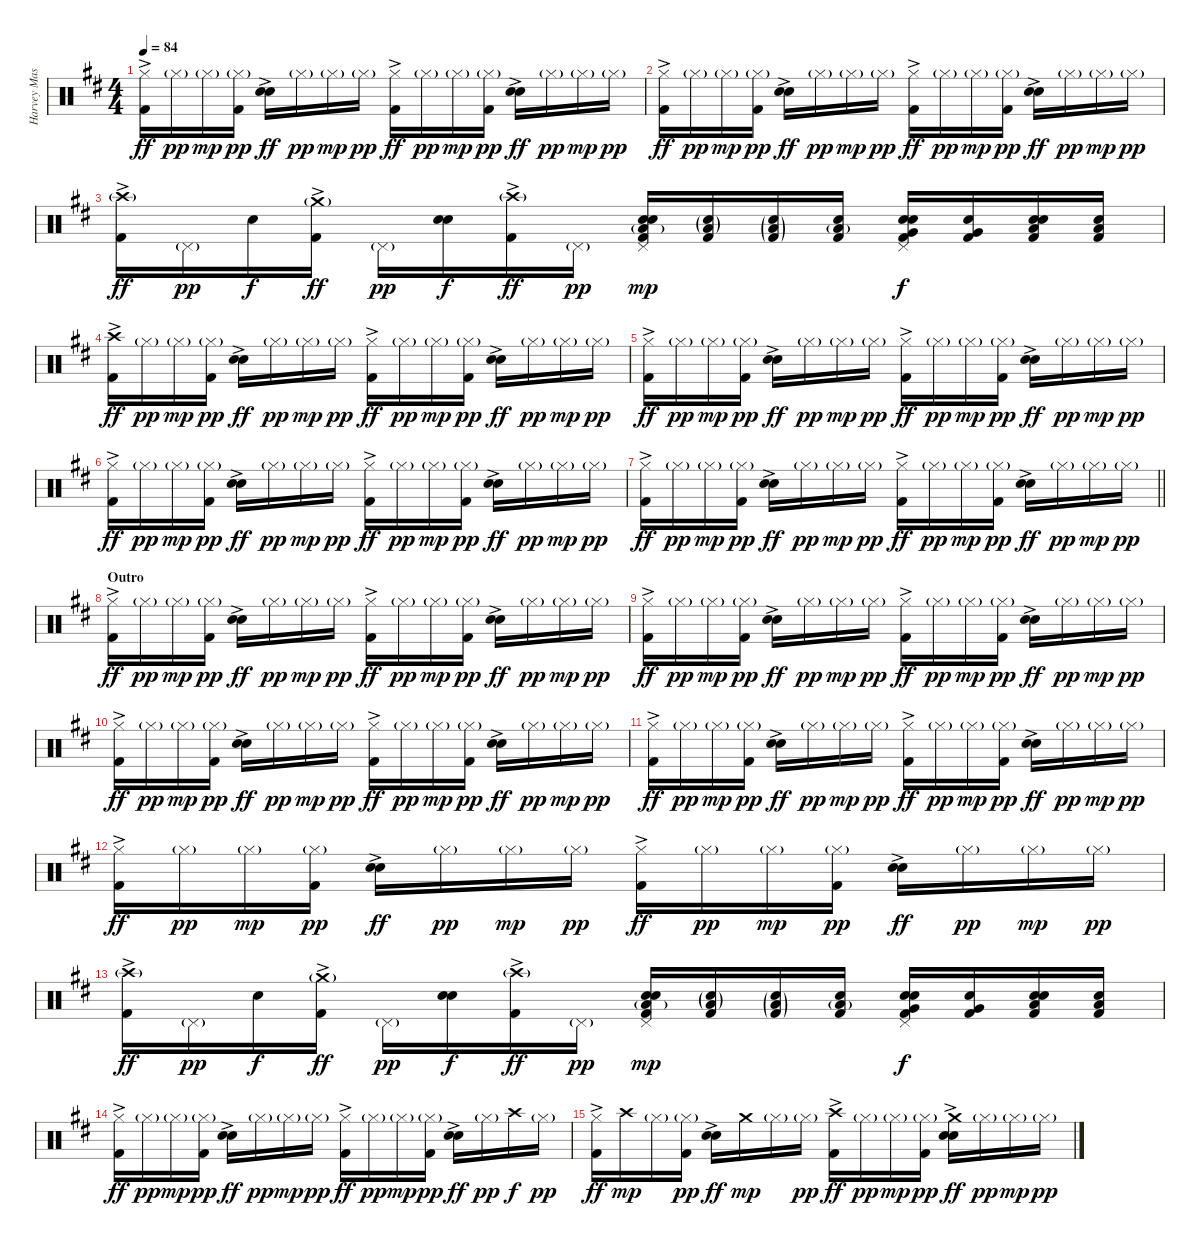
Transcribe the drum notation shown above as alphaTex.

\track ("Harvey Mason" "Harvey Mas") {instrument percussion}
\staff {score}
\articulation defaults
\ts (4 4)
\tempo 84
\clef neutral
\ks d
("Hi-Hat (closed)" "Kick (hit) 2"{ac}).16{dy ff} "Hi-Hat (closed)"{g}.16{dy pp} "Hi-Hat (closed)"{g}.16{dy mp} ("Hi-Hat (closed)"{g} "Kick (hit) 2").16{dy pp} ("Electric Snare (hit)"{ac} "Snare (hit) 2").16{dy ff} "Hi-Hat (closed)"{g}.16{dy pp} "Hi-Hat (closed)"{g}.16{dy mp} "Hi-Hat (closed)"{g}.16{dy pp} ("Hi-Hat (closed)" "Kick (hit) 2"{ac}).16{dy ff} "Hi-Hat (closed)"{g}.16{dy pp} "Hi-Hat (closed)"{g}.16{dy mp} ("Hi-Hat (closed)"{g} "Kick (hit) 2").16{dy pp} ("Electric Snare (hit)"{ac} "Snare (hit) 2").16{dy ff} "Hi-Hat (closed)"{g}.16{dy pp} "Hi-Hat (closed)"{g}.16{dy mp} "Hi-Hat (closed)"{g}.16{dy pp} |
("Hi-Hat (closed)" "Kick (hit) 2"{ac}).16{dy ff} "Hi-Hat (closed)"{g}.16{dy pp} "Hi-Hat (closed)"{g}.16{dy mp} ("Hi-Hat (closed)"{g} "Kick (hit) 2").16{dy pp} ("Electric Snare (hit)"{ac} "Snare (hit) 2").16{dy ff} "Hi-Hat (closed)"{g}.16{dy pp} "Hi-Hat (closed)"{g}.16{dy mp} "Hi-Hat (closed)"{g}.16{dy pp} ("Hi-Hat (closed)" "Kick (hit) 2"{ac}).16{dy ff} "Hi-Hat (closed)"{g}.16{dy pp} "Hi-Hat (closed)"{g}.16{dy mp} ("Hi-Hat (closed)"{g} "Kick (hit) 2").16{dy pp} ("Electric Snare (hit)"{ac} "Snare (hit) 2").16{dy ff} "Hi-Hat (closed)"{g}.16{dy pp} "Hi-Hat (closed)"{g}.16{dy mp} "Hi-Hat (closed)"{g}.16{dy pp} |
("Crash high (hit)"{g} "Kick (hit) 2"{ac}).16{dy ff} "Pedal Hi-Hat (hit)"{g}.16{dy pp} "Snare (hit) 2".16{dy f} ("Crash medium (hit)"{g} "Kick (hit) 2"{ac}).16{dy ff} "Pedal Hi-Hat (hit)"{g}.16{dy pp} ("Electric Snare (hit)" "Snare (hit) 2").16{dy f} ("Crash high (hit)"{g} "Kick (hit) 2"{ac}).16{dy ff} "Pedal Hi-Hat (hit)"{g}.16{dy pp} ("Pedal Hi-Hat (hit)" "Low Tom (hit)"{g} "Electric Snare (hit)" "Snare (hit) 2" "Kick (hit) 2").16{dy mp} ("Low Tom (hit)"{g} "Snare (hit) 2"{g} "Kick (hit) 2").16 ("Low Tom (hit)"{g} "Snare (hit) 2"{g} "Kick (hit) 2"{g}).16 ("Low Tom (hit)"{g} "Snare (hit) 2" "Kick (hit) 2").16 ("Pedal Hi-Hat (hit)" "Very Low Tom (hit)" "Electric Snare (hit)" "Snare (hit) 2" "Kick (hit) 2").16{dy f} ("Very Low Tom (hit)" "Snare (hit) 2" "Kick (hit) 2").16 ("Low Floor Tom (hit)" "Electric Snare (hit)" "Snare (hit) 2" "Kick (hit) 2").16 ("Low Floor Tom (hit)" "Snare (hit) 2" "Kick (hit) 2").16 |
("Crash high (hit)" "Kick (hit) 2"{ac}).16{dy ff} "Hi-Hat (closed)"{g}.16{dy pp} "Hi-Hat (closed)"{g}.16{dy mp} ("Hi-Hat (closed)"{g} "Kick (hit) 2").16{dy pp} ("Electric Snare (hit)"{ac} "Snare (hit) 2").16{dy ff} "Hi-Hat (closed)"{g}.16{dy pp} "Hi-Hat (closed)"{g}.16{dy mp} "Hi-Hat (closed)"{g}.16{dy pp} ("Hi-Hat (closed)" "Kick (hit) 2"{ac}).16{dy ff} "Hi-Hat (closed)"{g}.16{dy pp} "Hi-Hat (closed)"{g}.16{dy mp} ("Hi-Hat (closed)"{g} "Kick (hit) 2").16{dy pp} ("Electric Snare (hit)"{ac} "Snare (hit) 2").16{dy ff} "Hi-Hat (closed)"{g}.16{dy pp} "Hi-Hat (closed)"{g}.16{dy mp} "Hi-Hat (closed)"{g}.16{dy pp} |
("Hi-Hat (closed)" "Kick (hit) 2"{ac}).16{dy ff} "Hi-Hat (closed)"{g}.16{dy pp} "Hi-Hat (closed)"{g}.16{dy mp} ("Hi-Hat (closed)"{g} "Kick (hit) 2").16{dy pp} ("Electric Snare (hit)"{ac} "Snare (hit) 2").16{dy ff} "Hi-Hat (closed)"{g}.16{dy pp} "Hi-Hat (closed)"{g}.16{dy mp} "Hi-Hat (closed)"{g}.16{dy pp} ("Hi-Hat (closed)" "Kick (hit) 2"{ac}).16{dy ff} "Hi-Hat (closed)"{g}.16{dy pp} "Hi-Hat (closed)"{g}.16{dy mp} ("Hi-Hat (closed)"{g} "Kick (hit) 2").16{dy pp} ("Electric Snare (hit)"{ac} "Snare (hit) 2").16{dy ff} "Hi-Hat (closed)"{g}.16{dy pp} "Hi-Hat (closed)"{g}.16{dy mp} "Hi-Hat (closed)"{g}.16{dy pp} |
("Hi-Hat (closed)" "Kick (hit) 2"{ac}).16{dy ff} "Hi-Hat (closed)"{g}.16{dy pp} "Hi-Hat (closed)"{g}.16{dy mp} ("Hi-Hat (closed)"{g} "Kick (hit) 2").16{dy pp} ("Electric Snare (hit)"{ac} "Snare (hit) 2").16{dy ff} "Hi-Hat (closed)"{g}.16{dy pp} "Hi-Hat (closed)"{g}.16{dy mp} "Hi-Hat (closed)"{g}.16{dy pp} ("Hi-Hat (closed)" "Kick (hit) 2"{ac}).16{dy ff} "Hi-Hat (closed)"{g}.16{dy pp} "Hi-Hat (closed)"{g}.16{dy mp} ("Hi-Hat (closed)"{g} "Kick (hit) 2").16{dy pp} ("Electric Snare (hit)"{ac} "Snare (hit) 2").16{dy ff} "Hi-Hat (closed)"{g}.16{dy pp} "Hi-Hat (closed)"{g}.16{dy mp} "Hi-Hat (closed)"{g}.16{dy pp} |
\barLineRight lightlight
("Hi-Hat (closed)" "Kick (hit) 2"{ac}).16{dy ff} "Hi-Hat (closed)"{g}.16{dy pp} "Hi-Hat (closed)"{g}.16{dy mp} ("Hi-Hat (closed)"{g} "Kick (hit) 2").16{dy pp} ("Electric Snare (hit)"{ac} "Snare (hit) 2").16{dy ff} "Hi-Hat (closed)"{g}.16{dy pp} "Hi-Hat (closed)"{g}.16{dy mp} "Hi-Hat (closed)"{g}.16{dy pp} ("Hi-Hat (closed)" "Kick (hit) 2"{ac}).16{dy ff} "Hi-Hat (closed)"{g}.16{dy pp} "Hi-Hat (closed)"{g}.16{dy mp} ("Hi-Hat (closed)"{g} "Kick (hit) 2").16{dy pp} ("Electric Snare (hit)"{ac} "Snare (hit) 2").16{dy ff} "Hi-Hat (closed)"{g}.16{dy pp} "Hi-Hat (closed)"{g}.16{dy mp} "Hi-Hat (closed)"{g}.16{dy pp} |
\section ("" "Outro")
("Hi-Hat (closed)" "Kick (hit) 2"{ac}).16{dy ff} "Hi-Hat (closed)"{g}.16{dy pp} "Hi-Hat (closed)"{g}.16{dy mp} ("Hi-Hat (closed)"{g} "Kick (hit) 2").16{dy pp} ("Electric Snare (hit)"{ac} "Snare (hit) 2").16{dy ff} "Hi-Hat (closed)"{g}.16{dy pp} "Hi-Hat (closed)"{g}.16{dy mp} "Hi-Hat (closed)"{g}.16{dy pp} ("Hi-Hat (closed)" "Kick (hit) 2"{ac}).16{dy ff} "Hi-Hat (closed)"{g}.16{dy pp} "Hi-Hat (closed)"{g}.16{dy mp} ("Hi-Hat (closed)"{g} "Kick (hit) 2").16{dy pp} ("Electric Snare (hit)"{ac} "Snare (hit) 2").16{dy ff} "Hi-Hat (closed)"{g}.16{dy pp} "Hi-Hat (closed)"{g}.16{dy mp} "Hi-Hat (closed)"{g}.16{dy pp} |
("Hi-Hat (closed)" "Kick (hit) 2"{ac}).16{dy ff} "Hi-Hat (closed)"{g}.16{dy pp} "Hi-Hat (closed)"{g}.16{dy mp} ("Hi-Hat (closed)"{g} "Kick (hit) 2").16{dy pp} ("Electric Snare (hit)"{ac} "Snare (hit) 2").16{dy ff} "Hi-Hat (closed)"{g}.16{dy pp} "Hi-Hat (closed)"{g}.16{dy mp} "Hi-Hat (closed)"{g}.16{dy pp} ("Hi-Hat (closed)" "Kick (hit) 2"{ac}).16{dy ff} "Hi-Hat (closed)"{g}.16{dy pp} "Hi-Hat (closed)"{g}.16{dy mp} ("Hi-Hat (closed)"{g} "Kick (hit) 2").16{dy pp} ("Electric Snare (hit)"{ac} "Snare (hit) 2").16{dy ff} "Hi-Hat (closed)"{g}.16{dy pp} "Hi-Hat (closed)"{g}.16{dy mp} "Hi-Hat (closed)"{g}.16{dy pp} |
("Hi-Hat (closed)" "Kick (hit) 2"{ac}).16{dy ff} "Hi-Hat (closed)"{g}.16{dy pp} "Hi-Hat (closed)"{g}.16{dy mp} ("Hi-Hat (closed)"{g} "Kick (hit) 2").16{dy pp} ("Electric Snare (hit)"{ac} "Snare (hit) 2").16{dy ff} "Hi-Hat (closed)"{g}.16{dy pp} "Hi-Hat (closed)"{g}.16{dy mp} "Hi-Hat (closed)"{g}.16{dy pp} ("Hi-Hat (closed)" "Kick (hit) 2"{ac}).16{dy ff} "Hi-Hat (closed)"{g}.16{dy pp} "Hi-Hat (closed)"{g}.16{dy mp} ("Hi-Hat (closed)"{g} "Kick (hit) 2").16{dy pp} ("Electric Snare (hit)"{ac} "Snare (hit) 2").16{dy ff} "Hi-Hat (closed)"{g}.16{dy pp} "Hi-Hat (closed)"{g}.16{dy mp} "Hi-Hat (closed)"{g}.16{dy pp} |
("Hi-Hat (closed)" "Kick (hit) 2"{ac}).16{dy ff} "Hi-Hat (closed)"{g}.16{dy pp} "Hi-Hat (closed)"{g}.16{dy mp} ("Hi-Hat (closed)"{g} "Kick (hit) 2").16{dy pp} ("Electric Snare (hit)"{ac} "Snare (hit) 2").16{dy ff} "Hi-Hat (closed)"{g}.16{dy pp} "Hi-Hat (closed)"{g}.16{dy mp} "Hi-Hat (closed)"{g}.16{dy pp} ("Hi-Hat (closed)" "Kick (hit) 2"{ac}).16{dy ff} "Hi-Hat (closed)"{g}.16{dy pp} "Hi-Hat (closed)"{g}.16{dy mp} ("Hi-Hat (closed)"{g} "Kick (hit) 2").16{dy pp} ("Electric Snare (hit)"{ac} "Snare (hit) 2").16{dy ff} "Hi-Hat (closed)"{g}.16{dy pp} "Hi-Hat (closed)"{g}.16{dy mp} "Hi-Hat (closed)"{g}.16{dy pp} |
("Hi-Hat (closed)" "Kick (hit) 2"{ac}).16{dy ff} "Hi-Hat (closed)"{g}.16{dy pp} "Hi-Hat (closed)"{g}.16{dy mp} ("Hi-Hat (closed)"{g} "Kick (hit) 2").16{dy pp} ("Electric Snare (hit)"{ac} "Snare (hit) 2").16{dy ff} "Hi-Hat (closed)"{g}.16{dy pp} "Hi-Hat (closed)"{g}.16{dy mp} "Hi-Hat (closed)"{g}.16{dy pp} ("Hi-Hat (closed)" "Kick (hit) 2"{ac}).16{dy ff} "Hi-Hat (closed)"{g}.16{dy pp} "Hi-Hat (closed)"{g}.16{dy mp} ("Hi-Hat (closed)"{g} "Kick (hit) 2").16{dy pp} ("Electric Snare (hit)"{ac} "Snare (hit) 2").16{dy ff} "Hi-Hat (closed)"{g}.16{dy pp} "Hi-Hat (closed)"{g}.16{dy mp} "Hi-Hat (closed)"{g}.16{dy pp} |
("Crash high (hit)"{g} "Kick (hit) 2"{ac}).16{dy ff} "Pedal Hi-Hat (hit)"{g}.16{dy pp} "Snare (hit) 2".16{dy f} ("Crash medium (hit)"{g} "Kick (hit) 2"{ac}).16{dy ff} "Pedal Hi-Hat (hit)"{g}.16{dy pp} ("Electric Snare (hit)" "Snare (hit) 2").16{dy f} ("Crash high (hit)"{g} "Kick (hit) 2"{ac}).16{dy ff} "Pedal Hi-Hat (hit)"{g}.16{dy pp} ("Pedal Hi-Hat (hit)" "Low Tom (hit)"{g} "Electric Snare (hit)" "Snare (hit) 2" "Kick (hit) 2").16{dy mp} ("Low Tom (hit)"{g} "Snare (hit) 2"{g} "Kick (hit) 2").16 ("Low Tom (hit)"{g} "Snare (hit) 2"{g} "Kick (hit) 2"{g}).16 ("Low Tom (hit)"{g} "Snare (hit) 2" "Kick (hit) 2").16 ("Pedal Hi-Hat (hit)" "Very Low Tom (hit)" "Electric Snare (hit)" "Snare (hit) 2" "Kick (hit) 2").16{dy f} ("Very Low Tom (hit)" "Snare (hit) 2" "Kick (hit) 2").16 ("Low Floor Tom (hit)" "Electric Snare (hit)" "Snare (hit) 2" "Kick (hit) 2").16 ("Low Floor Tom (hit)" "Snare (hit) 2" "Kick (hit) 2").16 |
("Hi-Hat (closed)" "Kick (hit) 2"{ac}).16{dy ff} "Hi-Hat (closed)"{g}.16{dy pp} "Hi-Hat (closed)"{g}.16{dy mp} ("Hi-Hat (closed)"{g} "Kick (hit) 2").16{dy pp} ("Electric Snare (hit)"{ac} "Snare (hit) 2").16{dy ff} "Hi-Hat (closed)"{g}.16{dy pp} "Hi-Hat (closed)"{g}.16{dy mp} "Hi-Hat (closed)"{g}.16{dy pp} ("Hi-Hat (closed)" "Kick (hit) 2"{ac}).16{dy ff} "Hi-Hat (closed)"{g}.16{dy pp} "Hi-Hat (closed)"{g}.16{dy mp} ("Hi-Hat (closed)"{g} "Kick (hit) 2").16{dy pp} ("Electric Snare (hit)"{ac} "Snare (hit) 2").16{dy ff} "Hi-Hat (closed)"{g}.16{dy pp} "Crash high (hit)".16{dy f} "Hi-Hat (closed)"{g}.16{dy pp} |
("Hi-Hat (closed)" "Kick (hit) 2"{ac}).16{dy ff} "Crash high (hit)".16{dy mp} "Hi-Hat (closed)"{g}.16 ("Hi-Hat (closed)"{g} "Kick (hit) 2").16{dy pp} ("Electric Snare (hit)"{ac} "Snare (hit) 2").16{dy ff} "Crash medium (hit)".16{dy mp} "Hi-Hat (closed)"{g}.16 "Hi-Hat (closed)"{g}.16{dy pp} ("Crash high (hit)" "Kick (hit) 2"{ac}).16{dy ff} "Hi-Hat (closed)"{g}.16{dy pp} "Hi-Hat (closed)"{g}.16{dy mp} ("Hi-Hat (closed)"{g} "Kick (hit) 2").16{dy pp} ("Crash medium (hit)" "Electric Snare (hit)"{ac} "Snare (hit) 2").16{dy ff} "Hi-Hat (closed)"{g}.16{dy pp} "Hi-Hat (closed)"{g}.16{dy mp} "Hi-Hat (closed)"{g}.16{dy pp}
